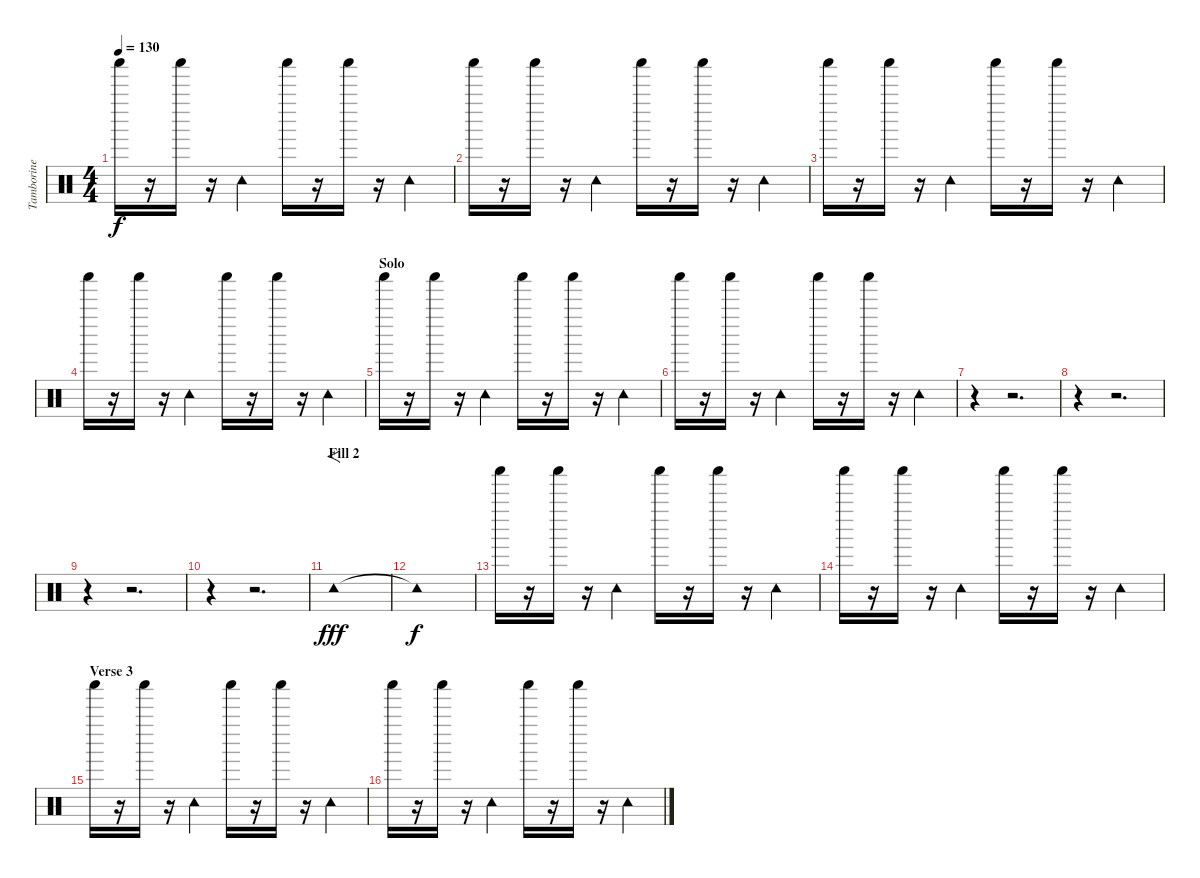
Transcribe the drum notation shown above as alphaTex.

\track ("Tamborine" "Tamborine") {instrument percussion}
\staff {score}
\articulation defaults
\ts (4 4)
\tempo 130
\clef neutral
\ks c "Shaker (hit)".16{dy f}
r.16 "Shaker (hit)".16 r.16 "Tambourine (hit)".4 "Shaker (hit)".16 r.16 "Shaker (hit)".16 r.16 "Tambourine (hit)".4 |
"Shaker (hit)".16 r.16 "Shaker (hit)".16 r.16 "Tambourine (hit)".4 "Shaker (hit)".16 r.16 "Shaker (hit)".16 r.16 "Tambourine (hit)".4 |
"Shaker (hit)".16 r.16 "Shaker (hit)".16 r.16 "Tambourine (hit)".4 "Shaker (hit)".16 r.16 "Shaker (hit)".16 r.16 "Tambourine (hit)".4 |
"Shaker (hit)".16 r.16 "Shaker (hit)".16 r.16 "Tambourine (hit)".4 "Shaker (hit)".16 r.16 "Shaker (hit)".16 r.16 "Tambourine (hit)".4 |
\section ("" "Solo")
"Shaker (hit)".16 r.16 "Shaker (hit)".16 r.16 "Tambourine (hit)".4 "Shaker (hit)".16 r.16 "Shaker (hit)".16 r.16 "Tambourine (hit)".4 |
"Shaker (hit)".16 r.16 "Shaker (hit)".16 r.16 "Tambourine (hit)".4 "Shaker (hit)".16 r.16 "Shaker (hit)".16 r.16 "Tambourine (hit)".4 |
r.4 r.2{d} |
r.4 r.2{d} |
r.4 r.2{d} |
r.4 r.2{d} |
\section ("" "Fill 2")
"Tambourine (hit)"{tr (54 32)}.1{f dy fff} |
"Tambourine (hit)"{t}.1{dy f} |
"Shaker (hit)".16 r.16 "Shaker (hit)".16 r.16 "Tambourine (hit)".4 "Shaker (hit)".16 r.16 "Shaker (hit)".16 r.16 "Tambourine (hit)".4 |
"Shaker (hit)".16 r.16 "Shaker (hit)".16 r.16 "Tambourine (hit)".4 "Shaker (hit)".16 r.16 "Shaker (hit)".16 r.16 "Tambourine (hit)".4 |
\section ("" "Verse 3")
"Shaker (hit)".16 r.16 "Shaker (hit)".16 r.16 "Tambourine (hit)".4 "Shaker (hit)".16 r.16 "Shaker (hit)".16 r.16 "Tambourine (hit)".4 |
"Shaker (hit)".16 r.16 "Shaker (hit)".16 r.16 "Tambourine (hit)".4 "Shaker (hit)".16 r.16 "Shaker (hit)".16 r.16 "Tambourine (hit)".4
